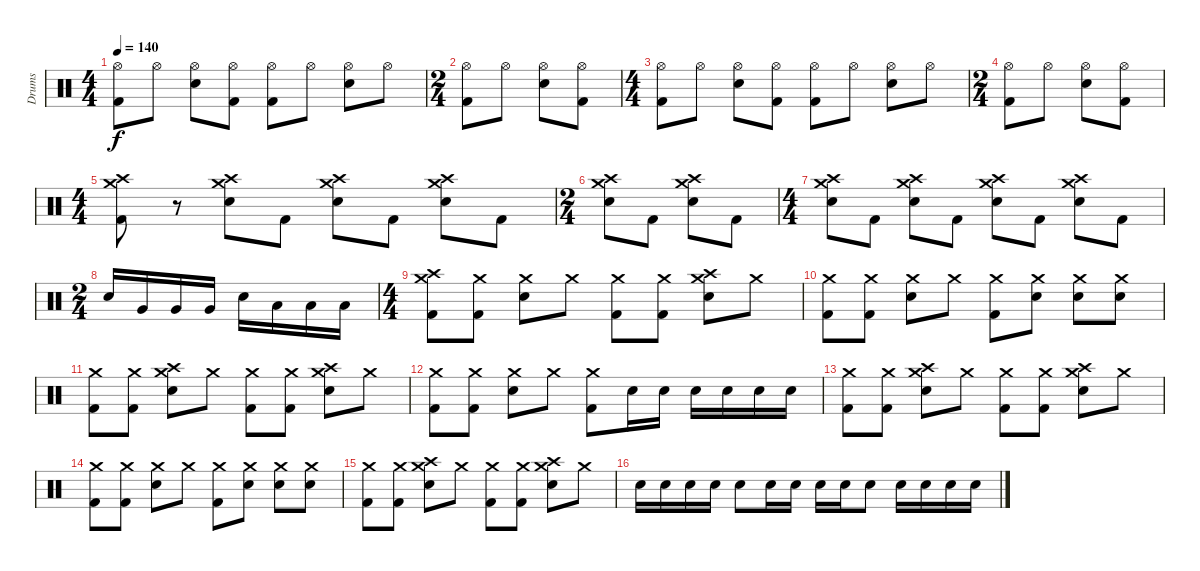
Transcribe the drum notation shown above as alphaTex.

\track ("Drums" "Drums") {instrument percussion}
\staff {score}
\articulation defaults
\ts (4 4)
\tempo 140
\clef neutral
\ks c
("Hi-Hat (open)" "Kick (hit) 2").8{dy f} "Hi-Hat (open)".8 ("Hi-Hat (open)" "Electric Snare (hit)").8 ("Hi-Hat (open)" "Kick (hit) 2").8 ("Hi-Hat (open)" "Kick (hit) 2").8 "Hi-Hat (open)".8 ("Hi-Hat (open)" "Electric Snare (hit)").8 "Hi-Hat (open)".8 |
\ts (2 4)
("Hi-Hat (open)" "Kick (hit) 2").8 "Hi-Hat (open)".8 ("Hi-Hat (open)" "Electric Snare (hit)").8 ("Hi-Hat (open)" "Kick (hit) 2").8 |
\ts (4 4)
("Hi-Hat (open)" "Kick (hit) 2").8 "Hi-Hat (open)".8 ("Hi-Hat (open)" "Electric Snare (hit)").8 ("Hi-Hat (open)" "Kick (hit) 2").8 ("Hi-Hat (open)" "Kick (hit) 2").8 "Hi-Hat (open)".8 ("Hi-Hat (open)" "Electric Snare (hit)").8 "Hi-Hat (open)".8 |
\ts (2 4)
("Hi-Hat (open)" "Kick (hit) 2").8 "Hi-Hat (open)".8 ("Hi-Hat (open)" "Electric Snare (hit)").8 ("Hi-Hat (open)" "Kick (hit) 2").8 |
\ts (4 4)
("Crash high (hit)" "Crash medium (hit)" "Kick (hit) 2").8 r.8 ("Crash high (hit)" "Crash medium (hit)" "Electric Snare (hit)").8 "Kick (hit) 2".8 ("Crash high (hit)" "Crash medium (hit)" "Electric Snare (hit)").8 "Kick (hit) 2".8 ("Crash high (hit)" "Crash medium (hit)" "Electric Snare (hit)").8 "Kick (hit) 2".8 |
\ts (2 4)
("Crash high (hit)" "Crash medium (hit)" "Electric Snare (hit)").8 "Kick (hit) 2".8 ("Crash high (hit)" "Crash medium (hit)" "Electric Snare (hit)").8 "Kick (hit) 2".8 |
\ts (4 4)
("Crash high (hit)" "Crash medium (hit)" "Electric Snare (hit)").8 "Kick (hit) 2".8 ("Crash high (hit)" "Crash medium (hit)" "Electric Snare (hit)").8 "Kick (hit) 2".8 ("Crash high (hit)" "Crash medium (hit)" "Electric Snare (hit)").8 "Kick (hit) 2".8 ("Crash high (hit)" "Crash medium (hit)" "Electric Snare (hit)").8 "Kick (hit) 2".8 |
\ts (2 4)
"Electric Snare (hit)".16 "Very Low Tom (hit)".16 "Very Low Tom (hit)".16 "Very Low Tom (hit)".16 "Electric Snare (hit)".16 "Low Floor Tom (hit)".16 "Low Floor Tom (hit)".16 "Low Floor Tom (hit)".16 |
\ts (4 4)
("Crash medium (hit)" "Crash high (hit)" "Kick (hit) 2").8 ("Crash medium (hit)" "Kick (hit) 2").8 ("Crash medium (hit)" "Electric Snare (hit)").8 "Crash medium (hit)".8 ("Crash medium (hit)" "Kick (hit) 2").8 ("Crash medium (hit)" "Kick (hit) 2").8 ("Crash medium (hit)" "Crash high (hit)" "Electric Snare (hit)").8 "Crash medium (hit)".8 |
("Crash medium (hit)" "Kick (hit) 2").8 ("Crash medium (hit)" "Kick (hit) 2").8 ("Crash medium (hit)" "Electric Snare (hit)").8 "Crash medium (hit)".8 ("Crash medium (hit)" "Kick (hit) 2").8 ("Crash medium (hit)" "Electric Snare (hit)").8 ("Crash medium (hit)" "Electric Snare (hit)").8 ("Crash medium (hit)" "Electric Snare (hit)").8 |
("Crash medium (hit)" "Kick (hit) 2").8 ("Crash medium (hit)" "Kick (hit) 2").8 ("Crash medium (hit)" "Crash high (hit)" "Electric Snare (hit)").8 "Crash medium (hit)".8 ("Crash medium (hit)" "Kick (hit) 2").8 ("Crash medium (hit)" "Kick (hit) 2").8 ("Crash medium (hit)" "Crash high (hit)" "Electric Snare (hit)").8 "Crash medium (hit)".8 |
("Crash medium (hit)" "Kick (hit) 2").8 ("Crash medium (hit)" "Kick (hit) 2").8 ("Crash medium (hit)" "Electric Snare (hit)").8 "Crash medium (hit)".8 ("Crash medium (hit)" "Kick (hit) 2").8 "Electric Snare (hit)".16 "Electric Snare (hit)".16 "Electric Snare (hit)".16 "Electric Snare (hit)".16 "Electric Snare (hit)".16 "Electric Snare (hit)".16 |
("Crash medium (hit)" "Kick (hit) 2").8 ("Crash medium (hit)" "Kick (hit) 2").8 ("Crash medium (hit)" "Crash high (hit)" "Electric Snare (hit)").8 "Crash medium (hit)".8 ("Crash medium (hit)" "Kick (hit) 2").8 ("Crash medium (hit)" "Kick (hit) 2").8 ("Crash medium (hit)" "Crash high (hit)" "Electric Snare (hit)").8 "Crash medium (hit)".8 |
("Crash medium (hit)" "Kick (hit) 2").8 ("Crash medium (hit)" "Kick (hit) 2").8 ("Crash medium (hit)" "Electric Snare (hit)").8 "Crash medium (hit)".8 ("Crash medium (hit)" "Kick (hit) 2").8 ("Crash medium (hit)" "Electric Snare (hit)").8 ("Crash medium (hit)" "Electric Snare (hit)").8 ("Crash medium (hit)" "Electric Snare (hit)").8 |
("Crash medium (hit)" "Kick (hit) 2").8 ("Crash medium (hit)" "Kick (hit) 2").8 ("Crash medium (hit)" "Crash high (hit)" "Electric Snare (hit)").8 "Crash medium (hit)".8 ("Crash medium (hit)" "Kick (hit) 2").8 ("Crash medium (hit)" "Kick (hit) 2").8 ("Crash medium (hit)" "Crash high (hit)" "Electric Snare (hit)").8 "Crash medium (hit)".8 |
"Electric Snare (hit)".16 "Electric Snare (hit)".16 "Electric Snare (hit)".16 "Electric Snare (hit)".16 "Electric Snare (hit)".8 "Electric Snare (hit)".16 "Electric Snare (hit)".16 "Electric Snare (hit)".16 "Electric Snare (hit)".16 "Electric Snare (hit)".8 "Electric Snare (hit)".16 "Electric Snare (hit)".16 "Electric Snare (hit)".16 "Electric Snare (hit)".16
